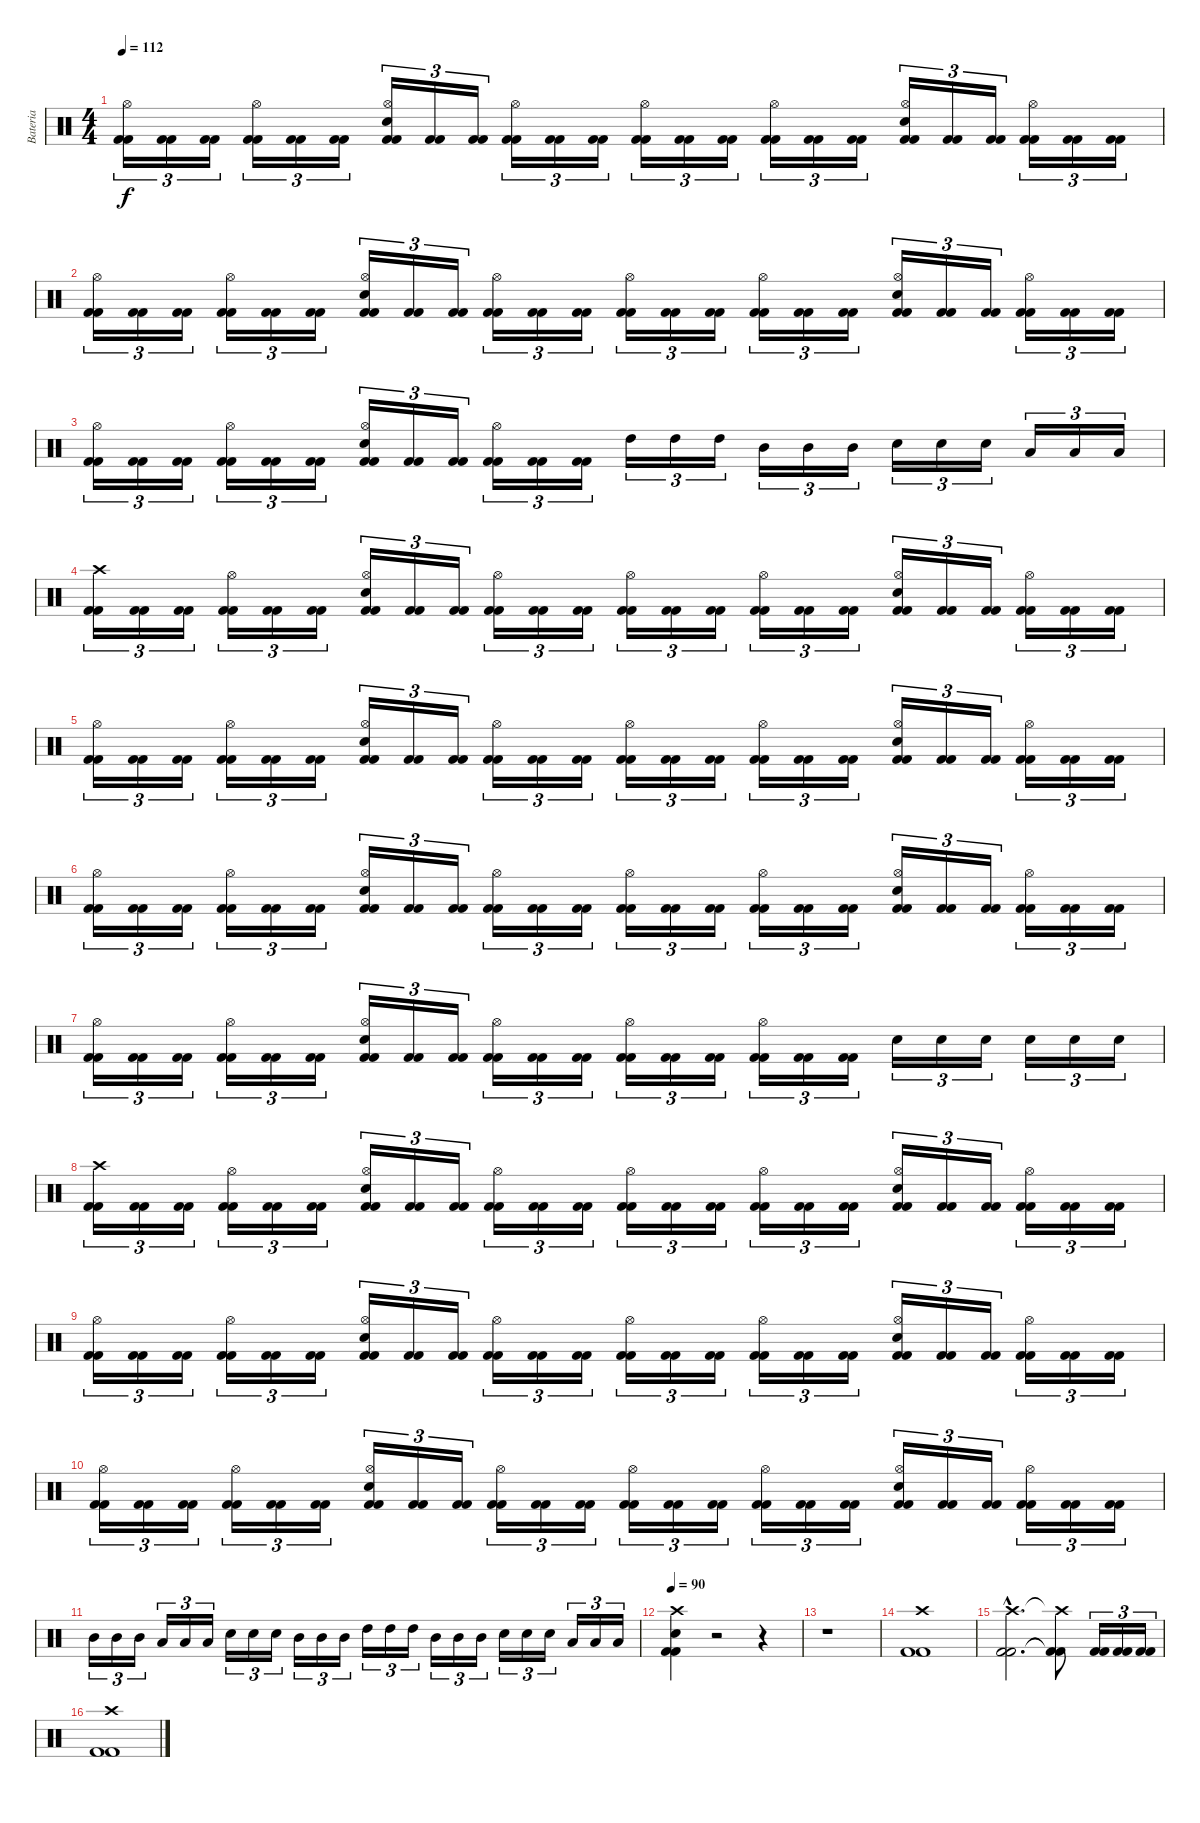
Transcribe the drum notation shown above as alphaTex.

\track ("Bateria" "Bateria") {instrument percussion}
\staff {score}
\articulation defaults
\ts (4 4)
\tempo 112
\clef neutral
\ks c
("Kick (hit) 2" "Kick (hit) 2" "Hi-Hat (open)").16{tu (3 2) dy f} ("Kick (hit) 2" "Kick (hit) 2").16{tu (3 2)} ("Kick (hit) 2" "Kick (hit) 2").16{tu (3 2)} ("Kick (hit) 2" "Kick (hit) 2" "Hi-Hat (open)").16{tu (3 2)} ("Kick (hit) 2" "Kick (hit) 2").16{tu (3 2)} ("Kick (hit) 2" "Kick (hit) 2").16{tu (3 2)} ("Kick (hit) 2" "Kick (hit) 2" "Snare (hit) 2" "Hi-Hat (open)").16{tu (3 2)} ("Kick (hit) 2" "Kick (hit) 2").16{tu (3 2)} ("Kick (hit) 2" "Kick (hit) 2").16{tu (3 2)} ("Kick (hit) 2" "Kick (hit) 2" "Hi-Hat (open)").16{tu (3 2)} ("Kick (hit) 2" "Kick (hit) 2").16{tu (3 2)} ("Kick (hit) 2" "Kick (hit) 2").16{tu (3 2)} ("Kick (hit) 2" "Kick (hit) 2" "Hi-Hat (open)").16{tu (3 2)} ("Kick (hit) 2" "Kick (hit) 2").16{tu (3 2)} ("Kick (hit) 2" "Kick (hit) 2").16{tu (3 2)} ("Kick (hit) 2" "Kick (hit) 2" "Hi-Hat (open)").16{tu (3 2)} ("Kick (hit) 2" "Kick (hit) 2").16{tu (3 2)} ("Kick (hit) 2" "Kick (hit) 2").16{tu (3 2)} ("Kick (hit) 2" "Kick (hit) 2" "Snare (hit) 2" "Hi-Hat (open)").16{tu (3 2)} ("Kick (hit) 2" "Kick (hit) 2").16{tu (3 2)} ("Kick (hit) 2" "Kick (hit) 2").16{tu (3 2)} ("Kick (hit) 2" "Kick (hit) 2" "Hi-Hat (open)").16{tu (3 2)} ("Kick (hit) 2" "Kick (hit) 2").16{tu (3 2)} ("Kick (hit) 2" "Kick (hit) 2").16{tu (3 2)} |
("Kick (hit) 2" "Kick (hit) 2" "Hi-Hat (open)").16{tu (3 2)} ("Kick (hit) 2" "Kick (hit) 2").16{tu (3 2)} ("Kick (hit) 2" "Kick (hit) 2").16{tu (3 2)} ("Kick (hit) 2" "Kick (hit) 2" "Hi-Hat (open)").16{tu (3 2)} ("Kick (hit) 2" "Kick (hit) 2").16{tu (3 2)} ("Kick (hit) 2" "Kick (hit) 2").16{tu (3 2)} ("Kick (hit) 2" "Kick (hit) 2" "Snare (hit) 2" "Hi-Hat (open)").16{tu (3 2)} ("Kick (hit) 2" "Kick (hit) 2").16{tu (3 2)} ("Kick (hit) 2" "Kick (hit) 2").16{tu (3 2)} ("Kick (hit) 2" "Kick (hit) 2" "Hi-Hat (open)").16{tu (3 2)} ("Kick (hit) 2" "Kick (hit) 2").16{tu (3 2)} ("Kick (hit) 2" "Kick (hit) 2").16{tu (3 2)} ("Kick (hit) 2" "Kick (hit) 2" "Hi-Hat (open)").16{tu (3 2)} ("Kick (hit) 2" "Kick (hit) 2").16{tu (3 2)} ("Kick (hit) 2" "Kick (hit) 2").16{tu (3 2)} ("Kick (hit) 2" "Kick (hit) 2" "Hi-Hat (open)").16{tu (3 2)} ("Kick (hit) 2" "Kick (hit) 2").16{tu (3 2)} ("Kick (hit) 2" "Kick (hit) 2").16{tu (3 2)} ("Kick (hit) 2" "Kick (hit) 2" "Snare (hit) 2" "Hi-Hat (open)").16{tu (3 2)} ("Kick (hit) 2" "Kick (hit) 2").16{tu (3 2)} ("Kick (hit) 2" "Kick (hit) 2").16{tu (3 2)} ("Kick (hit) 2" "Kick (hit) 2" "Hi-Hat (open)").16{tu (3 2)} ("Kick (hit) 2" "Kick (hit) 2").16{tu (3 2)} ("Kick (hit) 2" "Kick (hit) 2").16{tu (3 2)} |
("Kick (hit) 2" "Kick (hit) 2" "Hi-Hat (open)").16{tu (3 2)} ("Kick (hit) 2" "Kick (hit) 2").16{tu (3 2)} ("Kick (hit) 2" "Kick (hit) 2").16{tu (3 2)} ("Kick (hit) 2" "Kick (hit) 2" "Hi-Hat (open)").16{tu (3 2)} ("Kick (hit) 2" "Kick (hit) 2").16{tu (3 2)} ("Kick (hit) 2" "Kick (hit) 2").16{tu (3 2)} ("Kick (hit) 2" "Kick (hit) 2" "Snare (hit) 2" "Hi-Hat (open)").16{tu (3 2)} ("Kick (hit) 2" "Kick (hit) 2").16{tu (3 2)} ("Kick (hit) 2" "Kick (hit) 2").16{tu (3 2)} ("Kick (hit) 2" "Kick (hit) 2" "Hi-Hat (open)").16{tu (3 2)} ("Kick (hit) 2" "Kick (hit) 2").16{tu (3 2)} ("Kick (hit) 2" "Kick (hit) 2").16{tu (3 2)} "High Tom (hit)".16{tu (3 2)} "High Tom (hit)".16{tu (3 2)} "High Tom (hit)".16{tu (3 2)} "Mid Tom (hit)".16{tu (3 2)} "Mid Tom (hit)".16{tu (3 2)} "Mid Tom (hit)".16{tu (3 2)} "Snare (hit) 2".16{tu (3 2)} "Snare (hit) 2".16{tu (3 2)} "Snare (hit) 2".16{tu (3 2)} "Low Tom (hit)".16{tu (3 2)} "Low Tom (hit)".16{tu (3 2)} "Low Tom (hit)".16{tu (3 2)} |
("Kick (hit) 2" "Kick (hit) 2" "Crash high (hit)").16{tu (3 2)} ("Kick (hit) 2" "Kick (hit) 2").16{tu (3 2)} ("Kick (hit) 2" "Kick (hit) 2").16{tu (3 2)} ("Kick (hit) 2" "Kick (hit) 2" "Hi-Hat (open)").16{tu (3 2)} ("Kick (hit) 2" "Kick (hit) 2").16{tu (3 2)} ("Kick (hit) 2" "Kick (hit) 2").16{tu (3 2)} ("Kick (hit) 2" "Kick (hit) 2" "Snare (hit) 2" "Hi-Hat (open)").16{tu (3 2)} ("Kick (hit) 2" "Kick (hit) 2").16{tu (3 2)} ("Kick (hit) 2" "Kick (hit) 2").16{tu (3 2)} ("Kick (hit) 2" "Kick (hit) 2" "Hi-Hat (open)").16{tu (3 2)} ("Kick (hit) 2" "Kick (hit) 2").16{tu (3 2)} ("Kick (hit) 2" "Kick (hit) 2").16{tu (3 2)} ("Kick (hit) 2" "Kick (hit) 2" "Hi-Hat (open)").16{tu (3 2)} ("Kick (hit) 2" "Kick (hit) 2").16{tu (3 2)} ("Kick (hit) 2" "Kick (hit) 2").16{tu (3 2)} ("Kick (hit) 2" "Kick (hit) 2" "Hi-Hat (open)").16{tu (3 2)} ("Kick (hit) 2" "Kick (hit) 2").16{tu (3 2)} ("Kick (hit) 2" "Kick (hit) 2").16{tu (3 2)} ("Kick (hit) 2" "Kick (hit) 2" "Snare (hit) 2" "Hi-Hat (open)").16{tu (3 2)} ("Kick (hit) 2" "Kick (hit) 2").16{tu (3 2)} ("Kick (hit) 2" "Kick (hit) 2").16{tu (3 2)} ("Kick (hit) 2" "Kick (hit) 2" "Hi-Hat (open)").16{tu (3 2)} ("Kick (hit) 2" "Kick (hit) 2").16{tu (3 2)} ("Kick (hit) 2" "Kick (hit) 2").16{tu (3 2)} |
("Kick (hit) 2" "Kick (hit) 2" "Hi-Hat (open)").16{tu (3 2)} ("Kick (hit) 2" "Kick (hit) 2").16{tu (3 2)} ("Kick (hit) 2" "Kick (hit) 2").16{tu (3 2)} ("Kick (hit) 2" "Kick (hit) 2" "Hi-Hat (open)").16{tu (3 2)} ("Kick (hit) 2" "Kick (hit) 2").16{tu (3 2)} ("Kick (hit) 2" "Kick (hit) 2").16{tu (3 2)} ("Kick (hit) 2" "Kick (hit) 2" "Snare (hit) 2" "Hi-Hat (open)").16{tu (3 2)} ("Kick (hit) 2" "Kick (hit) 2").16{tu (3 2)} ("Kick (hit) 2" "Kick (hit) 2").16{tu (3 2)} ("Kick (hit) 2" "Kick (hit) 2" "Hi-Hat (open)").16{tu (3 2)} ("Kick (hit) 2" "Kick (hit) 2").16{tu (3 2)} ("Kick (hit) 2" "Kick (hit) 2").16{tu (3 2)} ("Kick (hit) 2" "Kick (hit) 2" "Hi-Hat (open)").16{tu (3 2)} ("Kick (hit) 2" "Kick (hit) 2").16{tu (3 2)} ("Kick (hit) 2" "Kick (hit) 2").16{tu (3 2)} ("Kick (hit) 2" "Kick (hit) 2" "Hi-Hat (open)").16{tu (3 2)} ("Kick (hit) 2" "Kick (hit) 2").16{tu (3 2)} ("Kick (hit) 2" "Kick (hit) 2").16{tu (3 2)} ("Kick (hit) 2" "Kick (hit) 2" "Snare (hit) 2" "Hi-Hat (open)").16{tu (3 2)} ("Kick (hit) 2" "Kick (hit) 2").16{tu (3 2)} ("Kick (hit) 2" "Kick (hit) 2").16{tu (3 2)} ("Kick (hit) 2" "Kick (hit) 2" "Hi-Hat (open)").16{tu (3 2)} ("Kick (hit) 2" "Kick (hit) 2").16{tu (3 2)} ("Kick (hit) 2" "Kick (hit) 2").16{tu (3 2)} |
("Kick (hit) 2" "Kick (hit) 2" "Hi-Hat (open)").16{tu (3 2)} ("Kick (hit) 2" "Kick (hit) 2").16{tu (3 2)} ("Kick (hit) 2" "Kick (hit) 2").16{tu (3 2)} ("Kick (hit) 2" "Kick (hit) 2" "Hi-Hat (open)").16{tu (3 2)} ("Kick (hit) 2" "Kick (hit) 2").16{tu (3 2)} ("Kick (hit) 2" "Kick (hit) 2").16{tu (3 2)} ("Kick (hit) 2" "Kick (hit) 2" "Snare (hit) 2" "Hi-Hat (open)").16{tu (3 2)} ("Kick (hit) 2" "Kick (hit) 2").16{tu (3 2)} ("Kick (hit) 2" "Kick (hit) 2").16{tu (3 2)} ("Kick (hit) 2" "Kick (hit) 2" "Hi-Hat (open)").16{tu (3 2)} ("Kick (hit) 2" "Kick (hit) 2").16{tu (3 2)} ("Kick (hit) 2" "Kick (hit) 2").16{tu (3 2)} ("Kick (hit) 2" "Kick (hit) 2" "Hi-Hat (open)").16{tu (3 2)} ("Kick (hit) 2" "Kick (hit) 2").16{tu (3 2)} ("Kick (hit) 2" "Kick (hit) 2").16{tu (3 2)} ("Kick (hit) 2" "Kick (hit) 2" "Hi-Hat (open)").16{tu (3 2)} ("Kick (hit) 2" "Kick (hit) 2").16{tu (3 2)} ("Kick (hit) 2" "Kick (hit) 2").16{tu (3 2)} ("Kick (hit) 2" "Kick (hit) 2" "Snare (hit) 2" "Hi-Hat (open)").16{tu (3 2)} ("Kick (hit) 2" "Kick (hit) 2").16{tu (3 2)} ("Kick (hit) 2" "Kick (hit) 2").16{tu (3 2)} ("Kick (hit) 2" "Kick (hit) 2" "Hi-Hat (open)").16{tu (3 2)} ("Kick (hit) 2" "Kick (hit) 2").16{tu (3 2)} ("Kick (hit) 2" "Kick (hit) 2").16{tu (3 2)} |
("Kick (hit) 2" "Kick (hit) 2" "Hi-Hat (open)").16{tu (3 2)} ("Kick (hit) 2" "Kick (hit) 2").16{tu (3 2)} ("Kick (hit) 2" "Kick (hit) 2").16{tu (3 2)} ("Kick (hit) 2" "Kick (hit) 2" "Hi-Hat (open)").16{tu (3 2)} ("Kick (hit) 2" "Kick (hit) 2").16{tu (3 2)} ("Kick (hit) 2" "Kick (hit) 2").16{tu (3 2)} ("Kick (hit) 2" "Kick (hit) 2" "Snare (hit) 2" "Hi-Hat (open)").16{tu (3 2)} ("Kick (hit) 2" "Kick (hit) 2").16{tu (3 2)} ("Kick (hit) 2" "Kick (hit) 2").16{tu (3 2)} ("Kick (hit) 2" "Kick (hit) 2" "Hi-Hat (open)").16{tu (3 2)} ("Kick (hit) 2" "Kick (hit) 2").16{tu (3 2)} ("Kick (hit) 2" "Kick (hit) 2").16{tu (3 2)} ("Kick (hit) 2" "Kick (hit) 2" "Hi-Hat (open)").16{tu (3 2)} ("Kick (hit) 2" "Kick (hit) 2").16{tu (3 2)} ("Kick (hit) 2" "Kick (hit) 2").16{tu (3 2)} ("Kick (hit) 2" "Kick (hit) 2" "Hi-Hat (open)").16{tu (3 2)} ("Kick (hit) 2" "Kick (hit) 2").16{tu (3 2)} ("Kick (hit) 2" "Kick (hit) 2").16{tu (3 2)} "Snare (hit) 2".16{tu (3 2)} "Snare (hit) 2".16{tu (3 2)} "Snare (hit) 2".16{tu (3 2)} "Snare (hit) 2".16{tu (3 2)} "Snare (hit) 2".16{tu (3 2)} "Snare (hit) 2".16{tu (3 2)} |
("Kick (hit) 2" "Kick (hit) 2" "Crash high (hit)").16{tu (3 2)} ("Kick (hit) 2" "Kick (hit) 2").16{tu (3 2)} ("Kick (hit) 2" "Kick (hit) 2").16{tu (3 2)} ("Kick (hit) 2" "Kick (hit) 2" "Hi-Hat (open)").16{tu (3 2)} ("Kick (hit) 2" "Kick (hit) 2").16{tu (3 2)} ("Kick (hit) 2" "Kick (hit) 2").16{tu (3 2)} ("Kick (hit) 2" "Kick (hit) 2" "Snare (hit) 2" "Hi-Hat (open)").16{tu (3 2)} ("Kick (hit) 2" "Kick (hit) 2").16{tu (3 2)} ("Kick (hit) 2" "Kick (hit) 2").16{tu (3 2)} ("Kick (hit) 2" "Kick (hit) 2" "Hi-Hat (open)").16{tu (3 2)} ("Kick (hit) 2" "Kick (hit) 2").16{tu (3 2)} ("Kick (hit) 2" "Kick (hit) 2").16{tu (3 2)} ("Kick (hit) 2" "Kick (hit) 2" "Hi-Hat (open)").16{tu (3 2)} ("Kick (hit) 2" "Kick (hit) 2").16{tu (3 2)} ("Kick (hit) 2" "Kick (hit) 2").16{tu (3 2)} ("Kick (hit) 2" "Kick (hit) 2" "Hi-Hat (open)").16{tu (3 2)} ("Kick (hit) 2" "Kick (hit) 2").16{tu (3 2)} ("Kick (hit) 2" "Kick (hit) 2").16{tu (3 2)} ("Kick (hit) 2" "Kick (hit) 2" "Snare (hit) 2" "Hi-Hat (open)").16{tu (3 2)} ("Kick (hit) 2" "Kick (hit) 2").16{tu (3 2)} ("Kick (hit) 2" "Kick (hit) 2").16{tu (3 2)} ("Kick (hit) 2" "Kick (hit) 2" "Hi-Hat (open)").16{tu (3 2)} ("Kick (hit) 2" "Kick (hit) 2").16{tu (3 2)} ("Kick (hit) 2" "Kick (hit) 2").16{tu (3 2)} |
("Kick (hit) 2" "Kick (hit) 2" "Hi-Hat (open)").16{tu (3 2)} ("Kick (hit) 2" "Kick (hit) 2").16{tu (3 2)} ("Kick (hit) 2" "Kick (hit) 2").16{tu (3 2)} ("Kick (hit) 2" "Kick (hit) 2" "Hi-Hat (open)").16{tu (3 2)} ("Kick (hit) 2" "Kick (hit) 2").16{tu (3 2)} ("Kick (hit) 2" "Kick (hit) 2").16{tu (3 2)} ("Kick (hit) 2" "Kick (hit) 2" "Snare (hit) 2" "Hi-Hat (open)").16{tu (3 2)} ("Kick (hit) 2" "Kick (hit) 2").16{tu (3 2)} ("Kick (hit) 2" "Kick (hit) 2").16{tu (3 2)} ("Kick (hit) 2" "Kick (hit) 2" "Hi-Hat (open)").16{tu (3 2)} ("Kick (hit) 2" "Kick (hit) 2").16{tu (3 2)} ("Kick (hit) 2" "Kick (hit) 2").16{tu (3 2)} ("Kick (hit) 2" "Kick (hit) 2" "Hi-Hat (open)").16{tu (3 2)} ("Kick (hit) 2" "Kick (hit) 2").16{tu (3 2)} ("Kick (hit) 2" "Kick (hit) 2").16{tu (3 2)} ("Kick (hit) 2" "Kick (hit) 2" "Hi-Hat (open)").16{tu (3 2)} ("Kick (hit) 2" "Kick (hit) 2").16{tu (3 2)} ("Kick (hit) 2" "Kick (hit) 2").16{tu (3 2)} ("Kick (hit) 2" "Kick (hit) 2" "Snare (hit) 2" "Hi-Hat (open)").16{tu (3 2)} ("Kick (hit) 2" "Kick (hit) 2").16{tu (3 2)} ("Kick (hit) 2" "Kick (hit) 2").16{tu (3 2)} ("Kick (hit) 2" "Kick (hit) 2" "Hi-Hat (open)").16{tu (3 2)} ("Kick (hit) 2" "Kick (hit) 2").16{tu (3 2)} ("Kick (hit) 2" "Kick (hit) 2").16{tu (3 2)} |
("Kick (hit) 2" "Kick (hit) 2" "Hi-Hat (open)").16{tu (3 2)} ("Kick (hit) 2" "Kick (hit) 2").16{tu (3 2)} ("Kick (hit) 2" "Kick (hit) 2").16{tu (3 2)} ("Kick (hit) 2" "Kick (hit) 2" "Hi-Hat (open)").16{tu (3 2)} ("Kick (hit) 2" "Kick (hit) 2").16{tu (3 2)} ("Kick (hit) 2" "Kick (hit) 2").16{tu (3 2)} ("Kick (hit) 2" "Kick (hit) 2" "Snare (hit) 2" "Hi-Hat (open)").16{tu (3 2)} ("Kick (hit) 2" "Kick (hit) 2").16{tu (3 2)} ("Kick (hit) 2" "Kick (hit) 2").16{tu (3 2)} ("Kick (hit) 2" "Kick (hit) 2" "Hi-Hat (open)").16{tu (3 2)} ("Kick (hit) 2" "Kick (hit) 2").16{tu (3 2)} ("Kick (hit) 2" "Kick (hit) 2").16{tu (3 2)} ("Kick (hit) 2" "Kick (hit) 2" "Hi-Hat (open)").16{tu (3 2)} ("Kick (hit) 2" "Kick (hit) 2").16{tu (3 2)} ("Kick (hit) 2" "Kick (hit) 2").16{tu (3 2)} ("Kick (hit) 2" "Kick (hit) 2" "Hi-Hat (open)").16{tu (3 2)} ("Kick (hit) 2" "Kick (hit) 2").16{tu (3 2)} ("Kick (hit) 2" "Kick (hit) 2").16{tu (3 2)} ("Kick (hit) 2" "Kick (hit) 2" "Snare (hit) 2" "Hi-Hat (open)").16{tu (3 2)} ("Kick (hit) 2" "Kick (hit) 2").16{tu (3 2)} ("Kick (hit) 2" "Kick (hit) 2").16{tu (3 2)} ("Kick (hit) 2" "Kick (hit) 2" "Hi-Hat (open)").16{tu (3 2)} ("Kick (hit) 2" "Kick (hit) 2").16{tu (3 2)} ("Kick (hit) 2" "Kick (hit) 2").16{tu (3 2)} |
"Mid Tom (hit)".16{tu (3 2)} "Mid Tom (hit)".16{tu (3 2)} "Mid Tom (hit)".16{tu (3 2)} "Low Tom (hit)".16{tu (3 2)} "Low Tom (hit)".16{tu (3 2)} "Low Tom (hit)".16{tu (3 2)} "Snare (hit) 2".16{tu (3 2)} "Snare (hit) 2".16{tu (3 2)} "Snare (hit) 2".16{tu (3 2)} "Mid Tom (hit)".16{tu (3 2)} "Mid Tom (hit)".16{tu (3 2)} "Mid Tom (hit)".16{tu (3 2)} "High Tom (hit)".16{tu (3 2)} "High Tom (hit)".16{tu (3 2)} "High Tom (hit)".16{tu (3 2)} "Mid Tom (hit)".16{tu (3 2)} "Mid Tom (hit)".16{tu (3 2)} "Mid Tom (hit)".16{tu (3 2)} "Snare (hit) 2".16{tu (3 2)} "Snare (hit) 2".16{tu (3 2)} "Snare (hit) 2".16{tu (3 2)} "Low Tom (hit)".16{tu (3 2)} "Low Tom (hit)".16{tu (3 2)} "Low Tom (hit)".16{tu (3 2)} |
\tempo 90
("Kick (hit) 2" "Kick (hit) 2" "Snare (hit) 2" "Crash high (hit)").4 r.2 r.4 |
r.1 |
("Kick (hit) 2" "Kick (hit) 2" "Crash high (hit)").1 |
("Kick (hit) 2"{hac} "Kick (hit) 2"{hac} "Crash high (hit)"{hac}).2{d} ("Kick (hit) 2"{t} "Kick (hit) 2"{t} "Crash high (hit)"{t}).8 ("Kick (hit) 2" "Kick (hit) 2").16{tu (3 2)} ("Kick (hit) 2" "Kick (hit) 2").16{tu (3 2)} ("Kick (hit) 2" "Kick (hit) 2").16{tu (3 2)} |
("Kick (hit) 2" "Kick (hit) 2" "Crash high (hit)").1
